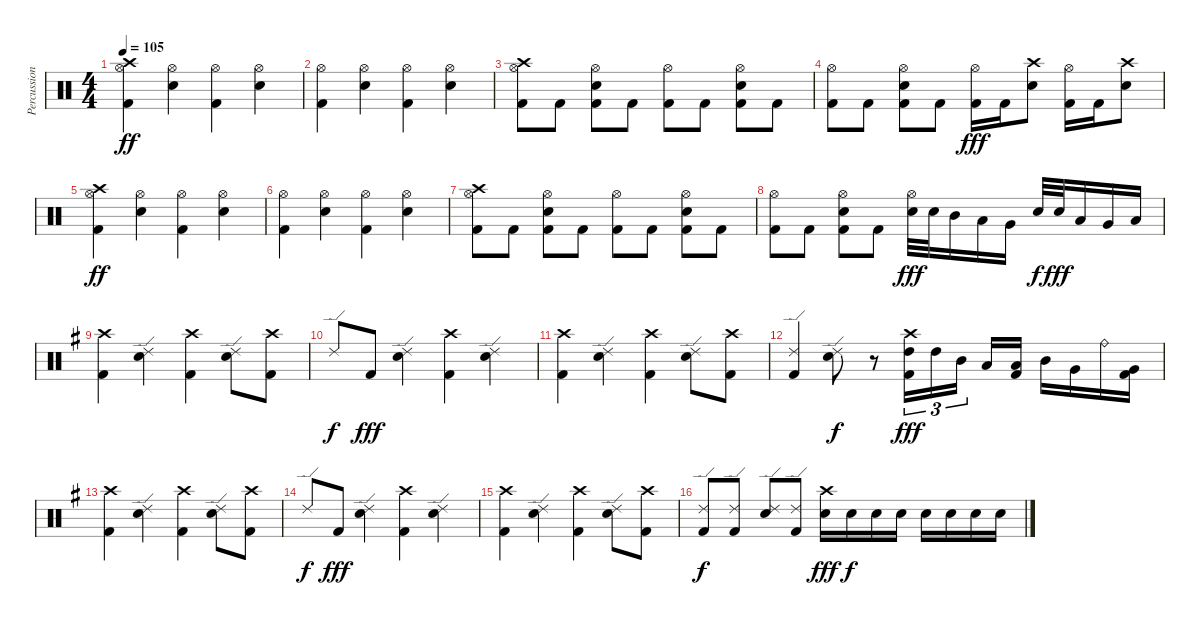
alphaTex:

\track ("Percussion" "Percussion") {instrument percussion}
\staff {score}
\articulation defaults
\ts (4 4)
\tempo 105
\clef neutral
\ks c
("Crash high (hit)" "Hi-Hat (open)" "Kick (hit) 2").4{dy ff} ("Hi-Hat (open)" "Electric Snare (hit)").4 ("Hi-Hat (open)" "Kick (hit) 2").4 ("Hi-Hat (open)" "Electric Snare (hit)").4 |
("Hi-Hat (open)" "Kick (hit) 2").4 ("Hi-Hat (open)" "Electric Snare (hit)").4 ("Hi-Hat (open)" "Kick (hit) 2").4 ("Hi-Hat (open)" "Electric Snare (hit)").4 |
("Crash high (hit)" "Hi-Hat (open)" "Kick (hit) 2").8 "Kick (hit) 2".8 ("Hi-Hat (open)" "Electric Snare (hit)" "Kick (hit) 2").8 "Kick (hit) 2".8 ("Hi-Hat (open)" "Kick (hit) 2").8 "Kick (hit) 2".8 ("Hi-Hat (open)" "Electric Snare (hit)" "Kick (hit) 2").8 "Kick (hit) 2".8 |
("Hi-Hat (open)" "Kick (hit) 2").8 "Kick (hit) 2".8 ("Hi-Hat (open)" "Electric Snare (hit)" "Kick (hit) 2").8 "Kick (hit) 2".8 ("Hi-Hat (open)" "Kick (hit) 2").16{dy fff} "Kick (hit) 2".16 ("Crash high (hit)" "Electric Snare (hit)").8 ("Hi-Hat (open)" "Kick (hit) 2").16 "Kick (hit) 2".16 ("Crash high (hit)" "Electric Snare (hit)").8 |
("Crash high (hit)" "Hi-Hat (open)" "Kick (hit) 2").4{dy ff} ("Hi-Hat (open)" "Electric Snare (hit)").4 ("Hi-Hat (open)" "Kick (hit) 2").4 ("Hi-Hat (open)" "Electric Snare (hit)").4 |
("Hi-Hat (open)" "Kick (hit) 2").4 ("Hi-Hat (open)" "Electric Snare (hit)").4 ("Hi-Hat (open)" "Kick (hit) 2").4 ("Hi-Hat (open)" "Electric Snare (hit)").4 |
("Crash high (hit)" "Hi-Hat (open)" "Kick (hit) 2").8 "Kick (hit) 2".8 ("Hi-Hat (open)" "Electric Snare (hit)" "Kick (hit) 2").8 "Kick (hit) 2".8 ("Hi-Hat (open)" "Kick (hit) 2").8 "Kick (hit) 2".8 ("Hi-Hat (open)" "Electric Snare (hit)" "Kick (hit) 2").8 "Kick (hit) 2".8 |
("Hi-Hat (open)" "Kick (hit) 2").8 "Kick (hit) 2".8 ("Hi-Hat (open)" "Electric Snare (hit)" "Kick (hit) 2").8 "Kick (hit) 2".8 ("Hi-Hat (open)" "Electric Snare (hit)").32{dy fff} "Electric Snare (hit)".32 "Mid Tom (hit)".16 "Low Tom (hit)".16 "Very Low Tom (hit)".16 "Electric Snare (hit)".32{dy f} "Electric Snare (hit)".32{dy fff} "Low Tom (hit)".16 "Very Low Tom (hit)".16 "Low Floor Tom (hit)".16 |
\ks g
("Crash high (hit)" "Kick (hit) 2").4 ("Ride (edge) 2" "Electric Snare (hit)").4 ("Crash high (hit)" "Kick (hit) 2").4 ("Ride (edge) 2" "Electric Snare (hit)").8 ("Crash high (hit)" "Kick (hit) 2").8 |
"Ride (edge) 2".8{dy f} "Kick (hit) 2".8{dy fff} ("Ride (edge) 2" "Electric Snare (hit)").4 ("Crash high (hit)" "Kick (hit) 2").4 ("Ride (edge) 2" "Electric Snare (hit)").4 |
("Crash high (hit)" "Kick (hit) 2").4 ("Ride (edge) 2" "Electric Snare (hit)").4 ("Crash high (hit)" "Kick (hit) 2").4 ("Ride (edge) 2" "Electric Snare (hit)").8 ("Crash high (hit)" "Kick (hit) 2").8 |
("Ride (edge) 2" "Kick (hit) 2").4 ("Ride (edge) 2" "Electric Snare (hit)").8{dy f} r.8 ("Crash high (hit)" "High Tom (hit)" "Kick (hit) 2").16{tu (3 2) dy fff} "High Tom (hit)".16{tu (3 2)} "Mid Tom (hit)".16{tu (3 2) beam splitsecondary} "Low Tom (hit)".16 ("Low Tom (hit)" "Kick (hit) 2").16 "Mid Tom (hit)".16 "Very Low Tom (hit)".16 "Ride (bell)".16 ("Very Low Tom (hit)" "Kick (hit) 2").16 |
("Crash high (hit)" "Kick (hit) 2").4 ("Ride (edge) 2" "Electric Snare (hit)").4 ("Crash high (hit)" "Kick (hit) 2").4 ("Ride (edge) 2" "Electric Snare (hit)").8 ("Crash high (hit)" "Kick (hit) 2").8 |
"Ride (edge) 2".8{dy f} "Kick (hit) 2".8{dy fff} ("Ride (edge) 2" "Electric Snare (hit)").4 ("Crash high (hit)" "Kick (hit) 2").4 ("Ride (edge) 2" "Electric Snare (hit)").4 |
("Crash high (hit)" "Kick (hit) 2").4 ("Ride (edge) 2" "Electric Snare (hit)").4 ("Crash high (hit)" "Kick (hit) 2").4 ("Ride (edge) 2" "Electric Snare (hit)").8 ("Crash high (hit)" "Kick (hit) 2").8 |
("Ride (edge) 2" "Kick (hit) 2").8{dy f} ("Ride (edge) 2" "Kick (hit) 2").8 ("Ride (edge) 2" "Electric Snare (hit)").8 ("Ride (edge) 2" "Kick (hit) 2").8 ("Crash high (hit)" "Electric Snare (hit)").16{dy fff} "Electric Snare (hit)".16{dy f} "Electric Snare (hit)".16 "Electric Snare (hit)".16 "Electric Snare (hit)".16 "Electric Snare (hit)".16 "Electric Snare (hit)".16 "Electric Snare (hit)".16
